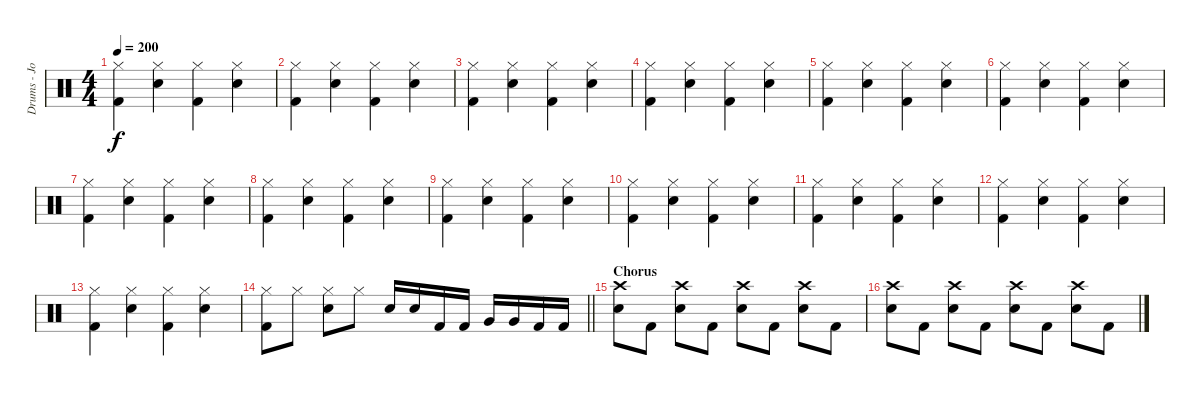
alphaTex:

\track ("Drums - John" "Drums - Jo") {instrument percussion}
\staff {score}
\articulation defaults
\ts (4 4)
\tempo 200
\clef neutral
\ks c
("Hi-Hat (closed)" "Kick (hit) 2").4{dy f} ("Hi-Hat (closed)" "Electric Snare (hit)").4 ("Hi-Hat (closed)" "Kick (hit) 2").4 ("Hi-Hat (closed)" "Electric Snare (hit)").4 |
("Hi-Hat (closed)" "Kick (hit) 2").4 ("Hi-Hat (closed)" "Electric Snare (hit)").4 ("Hi-Hat (closed)" "Kick (hit) 2").4 ("Hi-Hat (closed)" "Electric Snare (hit)").4 |
("Hi-Hat (closed)" "Kick (hit) 2").4 ("Hi-Hat (closed)" "Electric Snare (hit)").4 ("Hi-Hat (closed)" "Kick (hit) 2").4 ("Hi-Hat (closed)" "Electric Snare (hit)").4 |
("Hi-Hat (closed)" "Kick (hit) 2").4 ("Hi-Hat (closed)" "Electric Snare (hit)").4 ("Hi-Hat (closed)" "Kick (hit) 2").4 ("Hi-Hat (closed)" "Electric Snare (hit)").4 |
("Hi-Hat (closed)" "Kick (hit) 2").4 ("Hi-Hat (closed)" "Electric Snare (hit)").4 ("Hi-Hat (closed)" "Kick (hit) 2").4 ("Hi-Hat (closed)" "Electric Snare (hit)").4 |
("Hi-Hat (closed)" "Kick (hit) 2").4 ("Hi-Hat (closed)" "Electric Snare (hit)").4 ("Hi-Hat (closed)" "Kick (hit) 2").4 ("Hi-Hat (closed)" "Electric Snare (hit)").4 |
("Hi-Hat (closed)" "Kick (hit) 2").4 ("Hi-Hat (closed)" "Electric Snare (hit)").4 ("Hi-Hat (closed)" "Kick (hit) 2").4 ("Hi-Hat (closed)" "Electric Snare (hit)").4 |
("Hi-Hat (closed)" "Kick (hit) 2").4 ("Hi-Hat (closed)" "Electric Snare (hit)").4 ("Hi-Hat (closed)" "Kick (hit) 2").4 ("Hi-Hat (closed)" "Electric Snare (hit)").4 |
("Hi-Hat (closed)" "Kick (hit) 2").4 ("Hi-Hat (closed)" "Electric Snare (hit)").4 ("Hi-Hat (closed)" "Kick (hit) 2").4 ("Hi-Hat (closed)" "Electric Snare (hit)").4 |
("Hi-Hat (closed)" "Kick (hit) 2").4 ("Hi-Hat (closed)" "Electric Snare (hit)").4 ("Hi-Hat (closed)" "Kick (hit) 2").4 ("Hi-Hat (closed)" "Electric Snare (hit)").4 |
("Hi-Hat (closed)" "Kick (hit) 2").4 ("Hi-Hat (closed)" "Electric Snare (hit)").4 ("Hi-Hat (closed)" "Kick (hit) 2").4 ("Hi-Hat (closed)" "Electric Snare (hit)").4 |
("Hi-Hat (closed)" "Kick (hit) 2").4 ("Hi-Hat (closed)" "Electric Snare (hit)").4 ("Hi-Hat (closed)" "Kick (hit) 2").4 ("Hi-Hat (closed)" "Electric Snare (hit)").4 |
("Hi-Hat (closed)" "Kick (hit) 2").4 ("Hi-Hat (closed)" "Electric Snare (hit)").4 ("Hi-Hat (closed)" "Kick (hit) 2").4 ("Hi-Hat (closed)" "Electric Snare (hit)").4 |
\barLineRight lightlight
("Hi-Hat (closed)" "Kick (hit) 2").8 "Hi-Hat (closed)".8 ("Hi-Hat (closed)" "Electric Snare (hit)").8 "Hi-Hat (closed)".8 "Electric Snare (hit)".16 "Electric Snare (hit)".16 "Kick (hit) 2".16 "Kick (hit) 2".16 "Very Low Tom (hit)".16 "Very Low Tom (hit)".16 "Kick (hit) 2".16 "Kick (hit) 2".16 |
\section ("" "Chorus")
("Crash high (hit)" "Electric Snare (hit)").8 "Kick (hit) 2".8 ("Crash high (hit)" "Electric Snare (hit)").8 "Kick (hit) 2".8 ("Crash high (hit)" "Electric Snare (hit)").8 "Kick (hit) 2".8 ("Crash high (hit)" "Electric Snare (hit)").8 "Kick (hit) 2".8 |
("Crash high (hit)" "Electric Snare (hit)").8 "Kick (hit) 2".8 ("Crash high (hit)" "Electric Snare (hit)").8 "Kick (hit) 2".8 ("Crash high (hit)" "Electric Snare (hit)").8 "Kick (hit) 2".8 ("Crash high (hit)" "Electric Snare (hit)").8 "Kick (hit) 2".8
